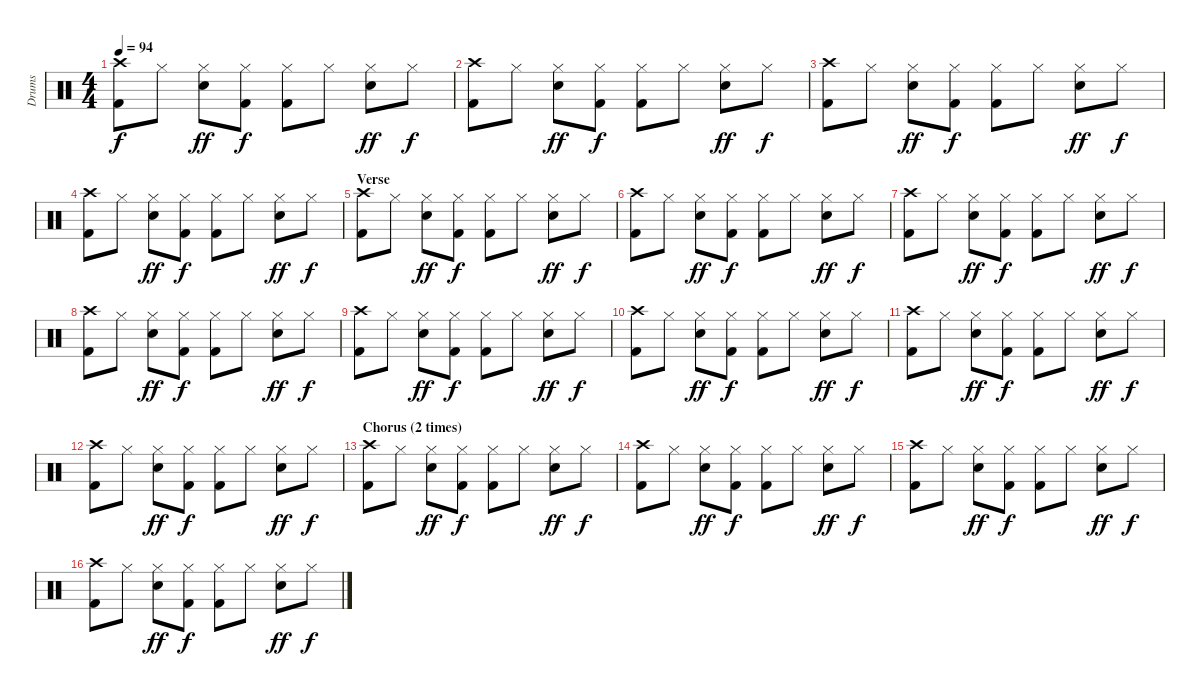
\track ("Drums" "Drums") {instrument percussion}
\staff {score}
\articulation defaults
\ts (4 4)
\tempo 94
\clef neutral
\ks c
("Crash high (hit)" "Kick (hit) 2").8{dy f} "Hi-Hat (closed)".8 ("Hi-Hat (closed)" "Electric Snare (hit)").8{dy ff} ("Hi-Hat (closed)" "Kick (hit) 2").8{dy f} ("Hi-Hat (closed)" "Kick (hit) 2").8 "Hi-Hat (closed)".8 ("Hi-Hat (closed)" "Electric Snare (hit)").8{dy ff} "Hi-Hat (closed)".8{dy f} |
("Crash high (hit)" "Kick (hit) 2").8 "Hi-Hat (closed)".8 ("Hi-Hat (closed)" "Electric Snare (hit)").8{dy ff} ("Hi-Hat (closed)" "Kick (hit) 2").8{dy f} ("Hi-Hat (closed)" "Kick (hit) 2").8 "Hi-Hat (closed)".8 ("Hi-Hat (closed)" "Electric Snare (hit)").8{dy ff} "Hi-Hat (closed)".8{dy f} |
("Crash high (hit)" "Kick (hit) 2").8 "Hi-Hat (closed)".8 ("Hi-Hat (closed)" "Electric Snare (hit)").8{dy ff} ("Hi-Hat (closed)" "Kick (hit) 2").8{dy f} ("Hi-Hat (closed)" "Kick (hit) 2").8 "Hi-Hat (closed)".8 ("Hi-Hat (closed)" "Electric Snare (hit)").8{dy ff} "Hi-Hat (closed)".8{dy f} |
("Crash high (hit)" "Kick (hit) 2").8 "Hi-Hat (closed)".8 ("Hi-Hat (closed)" "Electric Snare (hit)").8{dy ff} ("Hi-Hat (closed)" "Kick (hit) 2").8{dy f} ("Hi-Hat (closed)" "Kick (hit) 2").8 "Hi-Hat (closed)".8 ("Hi-Hat (closed)" "Electric Snare (hit)").8{dy ff} "Hi-Hat (closed)".8{dy f} |
\section ("" "Verse")
("Crash high (hit)" "Kick (hit) 2").8 "Hi-Hat (closed)".8 ("Hi-Hat (closed)" "Electric Snare (hit)").8{dy ff} ("Hi-Hat (closed)" "Kick (hit) 2").8{dy f} ("Hi-Hat (closed)" "Kick (hit) 2").8 "Hi-Hat (closed)".8 ("Hi-Hat (closed)" "Electric Snare (hit)").8{dy ff} "Hi-Hat (closed)".8{dy f} |
("Crash high (hit)" "Kick (hit) 2").8 "Hi-Hat (closed)".8 ("Hi-Hat (closed)" "Electric Snare (hit)").8{dy ff} ("Hi-Hat (closed)" "Kick (hit) 2").8{dy f} ("Hi-Hat (closed)" "Kick (hit) 2").8 "Hi-Hat (closed)".8 ("Hi-Hat (closed)" "Electric Snare (hit)").8{dy ff} "Hi-Hat (closed)".8{dy f} |
("Crash high (hit)" "Kick (hit) 2").8 "Hi-Hat (closed)".8 ("Hi-Hat (closed)" "Electric Snare (hit)").8{dy ff} ("Hi-Hat (closed)" "Kick (hit) 2").8{dy f} ("Hi-Hat (closed)" "Kick (hit) 2").8 "Hi-Hat (closed)".8 ("Hi-Hat (closed)" "Electric Snare (hit)").8{dy ff} "Hi-Hat (closed)".8{dy f} |
("Crash high (hit)" "Kick (hit) 2").8 "Hi-Hat (closed)".8 ("Hi-Hat (closed)" "Electric Snare (hit)").8{dy ff} ("Hi-Hat (closed)" "Kick (hit) 2").8{dy f} ("Hi-Hat (closed)" "Kick (hit) 2").8 "Hi-Hat (closed)".8 ("Hi-Hat (closed)" "Electric Snare (hit)").8{dy ff} "Hi-Hat (closed)".8{dy f} |
("Crash high (hit)" "Kick (hit) 2").8 "Hi-Hat (closed)".8 ("Hi-Hat (closed)" "Electric Snare (hit)").8{dy ff} ("Hi-Hat (closed)" "Kick (hit) 2").8{dy f} ("Hi-Hat (closed)" "Kick (hit) 2").8 "Hi-Hat (closed)".8 ("Hi-Hat (closed)" "Electric Snare (hit)").8{dy ff} "Hi-Hat (closed)".8{dy f} |
("Crash high (hit)" "Kick (hit) 2").8 "Hi-Hat (closed)".8 ("Hi-Hat (closed)" "Electric Snare (hit)").8{dy ff} ("Hi-Hat (closed)" "Kick (hit) 2").8{dy f} ("Hi-Hat (closed)" "Kick (hit) 2").8 "Hi-Hat (closed)".8 ("Hi-Hat (closed)" "Electric Snare (hit)").8{dy ff} "Hi-Hat (closed)".8{dy f} |
("Crash high (hit)" "Kick (hit) 2").8 "Hi-Hat (closed)".8 ("Hi-Hat (closed)" "Electric Snare (hit)").8{dy ff} ("Hi-Hat (closed)" "Kick (hit) 2").8{dy f} ("Hi-Hat (closed)" "Kick (hit) 2").8 "Hi-Hat (closed)".8 ("Hi-Hat (closed)" "Electric Snare (hit)").8{dy ff} "Hi-Hat (closed)".8{dy f} |
("Crash high (hit)" "Kick (hit) 2").8 "Hi-Hat (closed)".8 ("Hi-Hat (closed)" "Electric Snare (hit)").8{dy ff} ("Hi-Hat (closed)" "Kick (hit) 2").8{dy f} ("Hi-Hat (closed)" "Kick (hit) 2").8 "Hi-Hat (closed)".8 ("Hi-Hat (closed)" "Electric Snare (hit)").8{dy ff} "Hi-Hat (closed)".8{dy f} |
\section ("" "Chorus (2 times)")
("Crash high (hit)" "Kick (hit) 2").8 "Hi-Hat (closed)".8 ("Hi-Hat (closed)" "Electric Snare (hit)").8{dy ff} ("Hi-Hat (closed)" "Kick (hit) 2").8{dy f} ("Hi-Hat (closed)" "Kick (hit) 2").8 "Hi-Hat (closed)".8 ("Hi-Hat (closed)" "Electric Snare (hit)").8{dy ff} "Hi-Hat (closed)".8{dy f} |
("Crash high (hit)" "Kick (hit) 2").8 "Hi-Hat (closed)".8 ("Hi-Hat (closed)" "Electric Snare (hit)").8{dy ff} ("Hi-Hat (closed)" "Kick (hit) 2").8{dy f} ("Hi-Hat (closed)" "Kick (hit) 2").8 "Hi-Hat (closed)".8 ("Hi-Hat (closed)" "Electric Snare (hit)").8{dy ff} "Hi-Hat (closed)".8{dy f} |
("Crash high (hit)" "Kick (hit) 2").8 "Hi-Hat (closed)".8 ("Hi-Hat (closed)" "Electric Snare (hit)").8{dy ff} ("Hi-Hat (closed)" "Kick (hit) 2").8{dy f} ("Hi-Hat (closed)" "Kick (hit) 2").8 "Hi-Hat (closed)".8 ("Hi-Hat (closed)" "Electric Snare (hit)").8{dy ff} "Hi-Hat (closed)".8{dy f} |
("Crash high (hit)" "Kick (hit) 2").8 "Hi-Hat (closed)".8 ("Hi-Hat (closed)" "Electric Snare (hit)").8{dy ff} ("Hi-Hat (closed)" "Kick (hit) 2").8{dy f} ("Hi-Hat (closed)" "Kick (hit) 2").8 "Hi-Hat (closed)".8 ("Hi-Hat (closed)" "Electric Snare (hit)").8{dy ff} "Hi-Hat (closed)".8{dy f}
